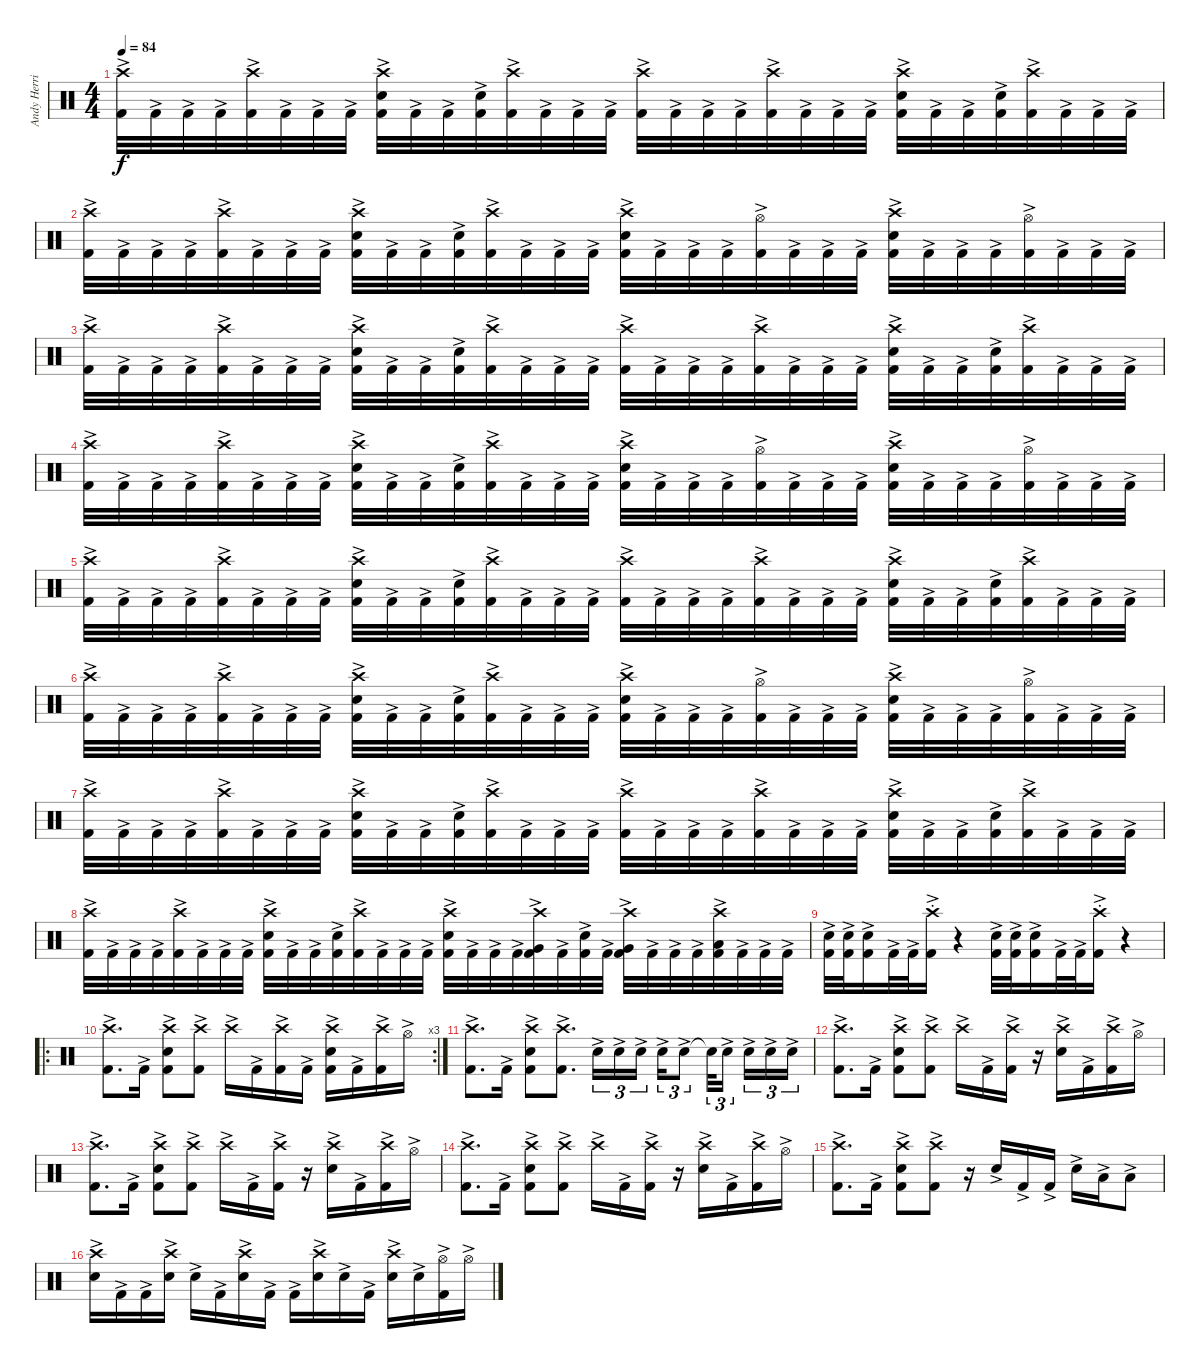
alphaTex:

\track ("Andy Herrick" "Andy Herri") {instrument percussion}
\staff {score}
\articulation defaults
\ts (4 4)
\tempo 84
\clef neutral
\ks c
("Crash high (hit)"{ac} "Kick (hit) 2"{ac}).32{dy f} "Kick (hit) 2"{ac}.32 "Kick (hit) 2"{ac}.32 "Kick (hit) 2"{ac}.32 ("Crash high (hit)"{ac} "Kick (hit) 2"{ac}).32 "Kick (hit) 2"{ac}.32 "Kick (hit) 2"{ac}.32 "Kick (hit) 2"{ac}.32 ("Crash high (hit)"{ac} "Electric Snare (hit)"{ac} "Kick (hit) 2"{ac}).32 "Kick (hit) 2"{ac}.32 "Kick (hit) 2"{ac}.32 ("Electric Snare (hit)"{ac} "Kick (hit) 2"{ac}).32 ("Crash high (hit)"{ac} "Kick (hit) 2"{ac}).32 "Kick (hit) 2"{ac}.32 "Kick (hit) 2"{ac}.32 "Kick (hit) 2"{ac}.32 ("Crash high (hit)"{ac} "Kick (hit) 2"{ac}).32 "Kick (hit) 2"{ac}.32 "Kick (hit) 2"{ac}.32 "Kick (hit) 2"{ac}.32 ("Crash high (hit)"{ac} "Kick (hit) 2"{ac}).32 "Kick (hit) 2"{ac}.32 "Kick (hit) 2"{ac}.32 "Kick (hit) 2"{ac}.32 ("Crash high (hit)"{ac} "Electric Snare (hit)"{ac} "Kick (hit) 2"{ac}).32 "Kick (hit) 2"{ac}.32 "Kick (hit) 2"{ac}.32 ("Electric Snare (hit)"{ac} "Kick (hit) 2"{ac}).32 ("Crash high (hit)"{ac} "Kick (hit) 2"{ac}).32 "Kick (hit) 2"{ac}.32 "Kick (hit) 2"{ac}.32 "Kick (hit) 2"{ac}.32 |
("Crash high (hit)"{ac} "Kick (hit) 2"{ac}).32 "Kick (hit) 2"{ac}.32 "Kick (hit) 2"{ac}.32 "Kick (hit) 2"{ac}.32 ("Crash high (hit)"{ac} "Kick (hit) 2"{ac}).32 "Kick (hit) 2"{ac}.32 "Kick (hit) 2"{ac}.32 "Kick (hit) 2"{ac}.32 ("Crash high (hit)"{ac} "Electric Snare (hit)"{ac} "Kick (hit) 2"{ac}).32 "Kick (hit) 2"{ac}.32 "Kick (hit) 2"{ac}.32 ("Electric Snare (hit)"{ac} "Kick (hit) 2"{ac}).32 ("Crash high (hit)"{ac} "Kick (hit) 2"{ac}).32 "Kick (hit) 2"{ac}.32 "Kick (hit) 2"{ac}.32 "Kick (hit) 2"{ac}.32 ("Crash high (hit)"{ac} "Electric Snare (hit)"{ac} "Kick (hit) 2"{ac}).32 "Kick (hit) 2"{ac}.32 "Kick (hit) 2"{ac}.32 "Kick (hit) 2"{ac}.32 ("Hi-Hat (open)"{ac} "Kick (hit) 2"{ac}).32 "Kick (hit) 2"{ac}.32 "Kick (hit) 2"{ac}.32 "Kick (hit) 2"{ac}.32 ("Crash high (hit)"{ac} "Electric Snare (hit)"{ac} "Kick (hit) 2"{ac}).32 "Kick (hit) 2"{ac}.32 "Kick (hit) 2"{ac}.32 "Kick (hit) 2"{ac}.32 ("Hi-Hat (open)"{ac} "Kick (hit) 2"{ac}).32 "Kick (hit) 2"{ac}.32 "Kick (hit) 2"{ac}.32 "Kick (hit) 2"{ac}.32 |
("Crash high (hit)"{ac} "Kick (hit) 2"{ac}).32 "Kick (hit) 2"{ac}.32 "Kick (hit) 2"{ac}.32 "Kick (hit) 2"{ac}.32 ("Crash high (hit)"{ac} "Kick (hit) 2"{ac}).32 "Kick (hit) 2"{ac}.32 "Kick (hit) 2"{ac}.32 "Kick (hit) 2"{ac}.32 ("Crash high (hit)"{ac} "Electric Snare (hit)"{ac} "Kick (hit) 2"{ac}).32 "Kick (hit) 2"{ac}.32 "Kick (hit) 2"{ac}.32 ("Electric Snare (hit)"{ac} "Kick (hit) 2"{ac}).32 ("Crash high (hit)"{ac} "Kick (hit) 2"{ac}).32 "Kick (hit) 2"{ac}.32 "Kick (hit) 2"{ac}.32 "Kick (hit) 2"{ac}.32 ("Crash high (hit)"{ac} "Kick (hit) 2"{ac}).32 "Kick (hit) 2"{ac}.32 "Kick (hit) 2"{ac}.32 "Kick (hit) 2"{ac}.32 ("Crash high (hit)"{ac} "Kick (hit) 2"{ac}).32 "Kick (hit) 2"{ac}.32 "Kick (hit) 2"{ac}.32 "Kick (hit) 2"{ac}.32 ("Crash high (hit)"{ac} "Electric Snare (hit)"{ac} "Kick (hit) 2"{ac}).32 "Kick (hit) 2"{ac}.32 "Kick (hit) 2"{ac}.32 ("Electric Snare (hit)"{ac} "Kick (hit) 2"{ac}).32 ("Crash high (hit)"{ac} "Kick (hit) 2"{ac}).32 "Kick (hit) 2"{ac}.32 "Kick (hit) 2"{ac}.32 "Kick (hit) 2"{ac}.32 |
("Crash high (hit)"{ac} "Kick (hit) 2"{ac}).32 "Kick (hit) 2"{ac}.32 "Kick (hit) 2"{ac}.32 "Kick (hit) 2"{ac}.32 ("Crash high (hit)"{ac} "Kick (hit) 2"{ac}).32 "Kick (hit) 2"{ac}.32 "Kick (hit) 2"{ac}.32 "Kick (hit) 2"{ac}.32 ("Crash high (hit)"{ac} "Electric Snare (hit)"{ac} "Kick (hit) 2"{ac}).32 "Kick (hit) 2"{ac}.32 "Kick (hit) 2"{ac}.32 ("Electric Snare (hit)"{ac} "Kick (hit) 2"{ac}).32 ("Crash high (hit)"{ac} "Kick (hit) 2"{ac}).32 "Kick (hit) 2"{ac}.32 "Kick (hit) 2"{ac}.32 "Kick (hit) 2"{ac}.32 ("Crash high (hit)"{ac} "Electric Snare (hit)"{ac} "Kick (hit) 2"{ac}).32 "Kick (hit) 2"{ac}.32 "Kick (hit) 2"{ac}.32 "Kick (hit) 2"{ac}.32 ("Hi-Hat (open)"{ac} "Kick (hit) 2"{ac}).32 "Kick (hit) 2"{ac}.32 "Kick (hit) 2"{ac}.32 "Kick (hit) 2"{ac}.32 ("Crash high (hit)"{ac} "Electric Snare (hit)"{ac} "Kick (hit) 2"{ac}).32 "Kick (hit) 2"{ac}.32 "Kick (hit) 2"{ac}.32 "Kick (hit) 2"{ac}.32 ("Hi-Hat (open)"{ac} "Kick (hit) 2"{ac}).32 "Kick (hit) 2"{ac}.32 "Kick (hit) 2"{ac}.32 "Kick (hit) 2"{ac}.32 |
("Crash high (hit)"{ac} "Kick (hit) 2"{ac}).32 "Kick (hit) 2"{ac}.32 "Kick (hit) 2"{ac}.32 "Kick (hit) 2"{ac}.32 ("Crash high (hit)"{ac} "Kick (hit) 2"{ac}).32 "Kick (hit) 2"{ac}.32 "Kick (hit) 2"{ac}.32 "Kick (hit) 2"{ac}.32 ("Crash high (hit)"{ac} "Electric Snare (hit)"{ac} "Kick (hit) 2"{ac}).32 "Kick (hit) 2"{ac}.32 "Kick (hit) 2"{ac}.32 ("Electric Snare (hit)"{ac} "Kick (hit) 2"{ac}).32 ("Crash high (hit)"{ac} "Kick (hit) 2"{ac}).32 "Kick (hit) 2"{ac}.32 "Kick (hit) 2"{ac}.32 "Kick (hit) 2"{ac}.32 ("Crash high (hit)"{ac} "Kick (hit) 2"{ac}).32 "Kick (hit) 2"{ac}.32 "Kick (hit) 2"{ac}.32 "Kick (hit) 2"{ac}.32 ("Crash high (hit)"{ac} "Kick (hit) 2"{ac}).32 "Kick (hit) 2"{ac}.32 "Kick (hit) 2"{ac}.32 "Kick (hit) 2"{ac}.32 ("Crash high (hit)"{ac} "Electric Snare (hit)"{ac} "Kick (hit) 2"{ac}).32 "Kick (hit) 2"{ac}.32 "Kick (hit) 2"{ac}.32 ("Electric Snare (hit)"{ac} "Kick (hit) 2"{ac}).32 ("Crash high (hit)"{ac} "Kick (hit) 2"{ac}).32 "Kick (hit) 2"{ac}.32 "Kick (hit) 2"{ac}.32 "Kick (hit) 2"{ac}.32 |
("Crash high (hit)"{ac} "Kick (hit) 2"{ac}).32 "Kick (hit) 2"{ac}.32 "Kick (hit) 2"{ac}.32 "Kick (hit) 2"{ac}.32 ("Crash high (hit)"{ac} "Kick (hit) 2"{ac}).32 "Kick (hit) 2"{ac}.32 "Kick (hit) 2"{ac}.32 "Kick (hit) 2"{ac}.32 ("Crash high (hit)"{ac} "Electric Snare (hit)"{ac} "Kick (hit) 2"{ac}).32 "Kick (hit) 2"{ac}.32 "Kick (hit) 2"{ac}.32 ("Electric Snare (hit)"{ac} "Kick (hit) 2"{ac}).32 ("Crash high (hit)"{ac} "Kick (hit) 2"{ac}).32 "Kick (hit) 2"{ac}.32 "Kick (hit) 2"{ac}.32 "Kick (hit) 2"{ac}.32 ("Crash high (hit)"{ac} "Electric Snare (hit)"{ac} "Kick (hit) 2"{ac}).32 "Kick (hit) 2"{ac}.32 "Kick (hit) 2"{ac}.32 "Kick (hit) 2"{ac}.32 ("Hi-Hat (open)"{ac} "Kick (hit) 2"{ac}).32 "Kick (hit) 2"{ac}.32 "Kick (hit) 2"{ac}.32 "Kick (hit) 2"{ac}.32 ("Crash high (hit)"{ac} "Electric Snare (hit)"{ac} "Kick (hit) 2"{ac}).32 "Kick (hit) 2"{ac}.32 "Kick (hit) 2"{ac}.32 "Kick (hit) 2"{ac}.32 ("Hi-Hat (open)"{ac} "Kick (hit) 2"{ac}).32 "Kick (hit) 2"{ac}.32 "Kick (hit) 2"{ac}.32 "Kick (hit) 2"{ac}.32 |
("Crash high (hit)"{ac} "Kick (hit) 2"{ac}).32 "Kick (hit) 2"{ac}.32 "Kick (hit) 2"{ac}.32 "Kick (hit) 2"{ac}.32 ("Crash high (hit)"{ac} "Kick (hit) 2"{ac}).32 "Kick (hit) 2"{ac}.32 "Kick (hit) 2"{ac}.32 "Kick (hit) 2"{ac}.32 ("Crash high (hit)"{ac} "Electric Snare (hit)"{ac} "Kick (hit) 2"{ac}).32 "Kick (hit) 2"{ac}.32 "Kick (hit) 2"{ac}.32 ("Electric Snare (hit)"{ac} "Kick (hit) 2"{ac}).32 ("Crash high (hit)"{ac} "Kick (hit) 2"{ac}).32 "Kick (hit) 2"{ac}.32 "Kick (hit) 2"{ac}.32 "Kick (hit) 2"{ac}.32 ("Crash high (hit)"{ac} "Kick (hit) 2"{ac}).32 "Kick (hit) 2"{ac}.32 "Kick (hit) 2"{ac}.32 "Kick (hit) 2"{ac}.32 ("Crash high (hit)"{ac} "Kick (hit) 2"{ac}).32 "Kick (hit) 2"{ac}.32 "Kick (hit) 2"{ac}.32 "Kick (hit) 2"{ac}.32 ("Crash high (hit)"{ac} "Electric Snare (hit)"{ac} "Kick (hit) 2"{ac}).32 "Kick (hit) 2"{ac}.32 "Kick (hit) 2"{ac}.32 ("Electric Snare (hit)"{ac} "Kick (hit) 2"{ac}).32 ("Crash high (hit)"{ac} "Kick (hit) 2"{ac}).32 "Kick (hit) 2"{ac}.32 "Kick (hit) 2"{ac}.32 "Kick (hit) 2"{ac}.32 |
("Crash high (hit)"{ac} "Kick (hit) 2"{ac}).32 "Kick (hit) 2"{ac}.32 "Kick (hit) 2"{ac}.32 "Kick (hit) 2"{ac}.32 ("Crash high (hit)"{ac} "Kick (hit) 2"{ac}).32 "Kick (hit) 2"{ac}.32 "Kick (hit) 2"{ac}.32 "Kick (hit) 2"{ac}.32 ("Crash high (hit)"{ac} "Electric Snare (hit)"{ac} "Kick (hit) 2"{ac}).32 "Kick (hit) 2"{ac}.32 "Kick (hit) 2"{ac}.32 ("Electric Snare (hit)"{ac} "Kick (hit) 2"{ac}).32 ("Crash high (hit)"{ac} "Kick (hit) 2"{ac}).32 "Kick (hit) 2"{ac}.32 "Kick (hit) 2"{ac}.32 "Kick (hit) 2"{ac}.32 ("Crash high (hit)" "Electric Snare (hit)" "Kick (hit) 2"{ac}).32 "Kick (hit) 2"{ac}.32 "Kick (hit) 2"{ac}.32 "Kick (hit) 2"{ac}.32 ("Crash high (hit)" "Very Low Tom (hit)" "Kick (hit) 2"{ac}).32 "Kick (hit) 2"{ac}.32 ("Electric Snare (hit)" "Kick (hit) 2"{ac}).32 "Kick (hit) 2"{ac}.32 ("Crash high (hit)" "Very Low Tom (hit)" "Kick (hit) 2"{ac}).32 "Kick (hit) 2"{ac}.32 "Kick (hit) 2"{ac}.32 "Kick (hit) 2"{ac}.32 ("Crash high (hit)" "Low Floor Tom (hit)" "Kick (hit) 2"{ac}).32 "Kick (hit) 2"{ac}.32 "Kick (hit) 2"{ac}.32 "Kick (hit) 2"{ac}.32 |
("Electric Snare (hit)"{ac} "Kick (hit) 2"{ac}).32 ("Electric Snare (hit)"{ac} "Kick (hit) 2"{ac}).32 ("Electric Snare (hit)"{ac} "Kick (hit) 2"{ac}).16 "Kick (hit) 2"{ac}.32 "Kick (hit) 2"{ac}.32 ("Crash high (hit)"{ac st} "Kick (hit) 2"{ac}).16 r.4 ("Electric Snare (hit)"{ac} "Kick (hit) 2"{ac}).32 ("Electric Snare (hit)"{ac} "Kick (hit) 2"{ac}).32 ("Electric Snare (hit)"{ac} "Kick (hit) 2"{ac}).16 "Kick (hit) 2"{ac}.32 "Kick (hit) 2"{ac}.32 ("Crash high (hit)"{ac st} "Kick (hit) 2"{ac}).16 r.4 |
\ro
\rc 3
("Crash high (hit)"{ac} "Kick (hit) 2"{ac}).8{d} "Kick (hit) 2"{ac}.16 ("Crash high (hit)"{ac} "Electric Snare (hit)"{ac} "Kick (hit) 2"{ac}).8 ("Crash high (hit)"{ac} "Kick (hit) 2"{ac}).8 "Crash high (hit)"{ac}.16 "Kick (hit) 2"{ac}.16 ("Crash high (hit)"{ac} "Kick (hit) 2"{ac}).16 "Kick (hit) 2"{ac}.16 ("Crash high (hit)"{ac} "Electric Snare (hit)"{ac} "Kick (hit) 2"{ac}).16 "Kick (hit) 2"{ac}.16 ("Crash high (hit)"{ac} "Kick (hit) 2"{ac}).16 "Hi-Hat (open)"{ac}.16 |
("Crash high (hit)"{ac} "Kick (hit) 2"{ac}).8{d} "Kick (hit) 2"{ac}.16 ("Crash high (hit)"{ac} "Electric Snare (hit)"{ac} "Kick (hit) 2"{ac}).8 ("Crash high (hit)"{ac} "Kick (hit) 2"{ac}).8{d} "Electric Snare (hit)"{ac}.16{tu (3 2)} "Electric Snare (hit)"{ac}.16{tu (3 2)} "Electric Snare (hit)"{ac}.16{tu (3 2) beam splitsecondary} "Electric Snare (hit)"{ac}.16{tu (3 2)} "Electric Snare (hit)"{ac}.8{tu (3 2)} "Electric Snare (hit)"{t}.32{tu (3 2)} "Electric Snare (hit)"{ac}.16{tu (3 2) beam splitsecondary} "Electric Snare (hit)"{ac}.16{tu (3 2)} "Electric Snare (hit)"{ac}.16{tu (3 2)} "Electric Snare (hit)"{ac}.16{tu (3 2)} |
("Crash high (hit)"{ac} "Kick (hit) 2"{ac}).8{d} "Kick (hit) 2"{ac}.16 ("Crash high (hit)"{ac} "Electric Snare (hit)"{ac} "Kick (hit) 2"{ac}).8 ("Crash high (hit)"{ac} "Kick (hit) 2"{ac}).8 "Crash high (hit)"{ac}.16 "Kick (hit) 2"{ac}.16 ("Crash high (hit)"{ac} "Kick (hit) 2"{ac}).16 r.16 ("Crash high (hit)"{ac} "Electric Snare (hit)"{ac}).16 "Kick (hit) 2"{ac}.16 ("Crash high (hit)"{ac} "Kick (hit) 2"{ac}).16 "Hi-Hat (open)"{ac}.16 |
("Crash high (hit)"{ac} "Kick (hit) 2"{ac}).8{d} "Kick (hit) 2"{ac}.16 ("Crash high (hit)"{ac} "Electric Snare (hit)"{ac} "Kick (hit) 2"{ac}).8 ("Crash high (hit)"{ac} "Kick (hit) 2"{ac}).8 "Crash high (hit)"{ac}.16 "Kick (hit) 2"{ac}.16 ("Crash high (hit)"{ac} "Kick (hit) 2"{ac}).16 r.16 ("Crash high (hit)"{ac} "Electric Snare (hit)"{ac}).16 "Kick (hit) 2"{ac}.16 ("Crash high (hit)"{ac} "Kick (hit) 2"{ac}).16 "Hi-Hat (open)"{ac}.16 |
("Crash high (hit)"{ac} "Kick (hit) 2"{ac}).8{d} "Kick (hit) 2"{ac}.16 ("Crash high (hit)"{ac} "Electric Snare (hit)"{ac} "Kick (hit) 2"{ac}).8 ("Crash high (hit)"{ac} "Kick (hit) 2"{ac}).8 "Crash high (hit)"{ac}.16 "Kick (hit) 2"{ac}.16 ("Crash high (hit)"{ac} "Kick (hit) 2"{ac}).16 r.16 ("Crash high (hit)"{ac} "Electric Snare (hit)"{ac}).16 "Kick (hit) 2"{ac}.16 ("Crash high (hit)"{ac} "Kick (hit) 2"{ac}).16 "Hi-Hat (open)"{ac}.16 |
("Crash high (hit)"{ac} "Kick (hit) 2"{ac}).8{d} "Kick (hit) 2"{ac}.16 ("Crash high (hit)"{ac} "Electric Snare (hit)"{ac} "Kick (hit) 2"{ac}).8 ("Crash high (hit)"{ac} "Kick (hit) 2"{ac}).8 r.16 "Electric Snare (hit)"{ac}.16 "Kick (hit) 2"{ac}.16 "Kick (hit) 2"{ac}.16 "Electric Snare (hit)"{ac}.16 "Low Tom (hit)"{ac}.16 "Low Floor Tom (hit)"{ac}.8 |
("Crash high (hit)"{ac} "Electric Snare (hit)"{ac}).16 "Kick (hit) 2"{ac}.16 "Kick (hit) 2"{ac}.16 ("Crash high (hit)"{ac} "Electric Snare (hit)"{ac}).16 "Electric Snare (hit)"{ac}.16 "Kick (hit) 2"{ac}.16 ("Crash high (hit)"{ac} "Electric Snare (hit)"{ac}).16 "Kick (hit) 2"{ac}.16 "Kick (hit) 2"{ac}.16 ("Crash high (hit)"{ac} "Electric Snare (hit)"{ac}).16 "Electric Snare (hit)"{ac}.16 "Kick (hit) 2"{ac}.16 ("Crash high (hit)"{ac} "Electric Snare (hit)"{ac}).16 "Electric Snare (hit)"{ac}.16 ("Hi-Hat (open)"{ac} "Kick (hit) 2"{ac}).16 "Hi-Hat (open)"{ac}.16
